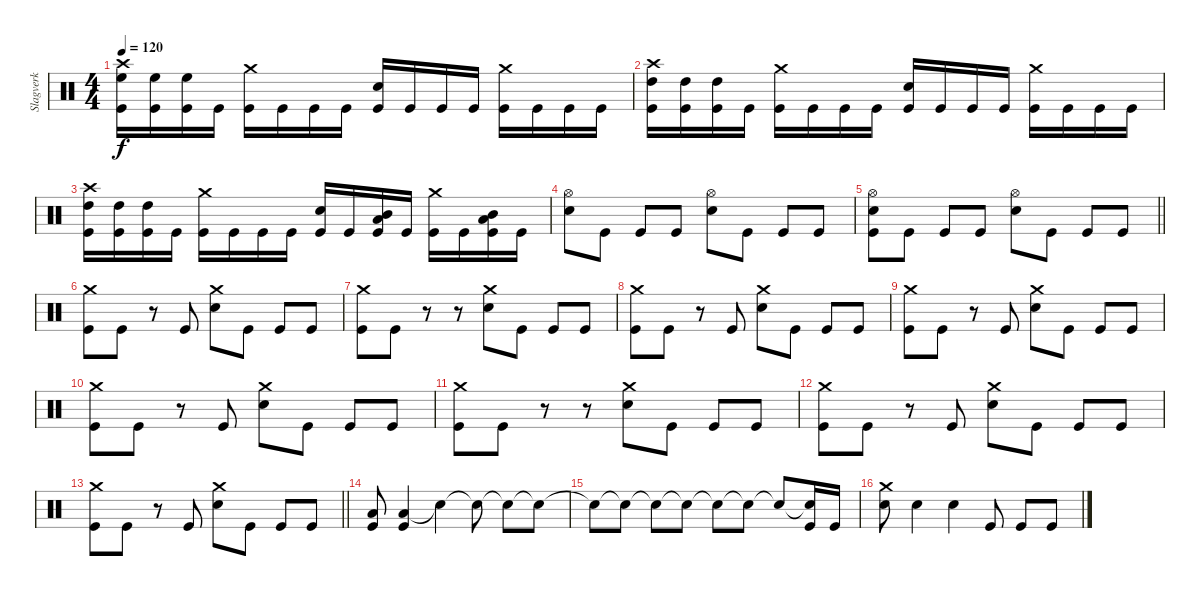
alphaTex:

\track ("Slagverk" "Slagverk") {instrument percussion}
\staff {score}
\articulation defaults
\ts (4 4)
\tempo 120
\clef neutral
\ks c
("Crash high (hit)" "High Floor Tom (hit)" "Kick (hit)").16{dy f} ("High Floor Tom (hit)" "Kick (hit)").16 ("High Floor Tom (hit)" "Kick (hit)").16 "Kick (hit)".16 ("Crash medium (hit)" "Kick (hit)").16 "Kick (hit)".16 "Kick (hit)".16 "Kick (hit)".16 ("Electric Snare (hit)" "Kick (hit)").16 "Kick (hit)".16 "Kick (hit)".16 "Kick (hit)".16 ("Crash medium (hit)" "Kick (hit)").16 "Kick (hit)".16 "Kick (hit)".16 "Kick (hit)".16 |
("Crash high (hit)" "High Tom (hit)" "Kick (hit)").16 ("High Tom (hit)" "Kick (hit)").16 ("High Tom (hit)" "Kick (hit)").16 "Kick (hit)".16 ("Crash medium (hit)" "Kick (hit)").16 "Kick (hit)".16 "Kick (hit)".16 "Kick (hit)".16 ("Electric Snare (hit)" "Kick (hit)").16 "Kick (hit)".16 "Kick (hit)".16 "Kick (hit)".16 ("Crash medium (hit)" "Kick (hit)").16 "Kick (hit)".16 "Kick (hit)".16 "Kick (hit)".16 |
("Crash high (hit)" "High Tom (hit)" "Kick (hit)").16 ("High Tom (hit)" "Kick (hit)").16 ("High Tom (hit)" "Kick (hit)").16 "Kick (hit)".16 ("Crash medium (hit)" "Kick (hit)").16 "Kick (hit)".16 "Kick (hit)".16 "Kick (hit)".16 ("Electric Snare (hit)" "Kick (hit)").16 "Kick (hit)".16 ("Mid Tom (hit)" "Low Tom (hit)" "Kick (hit)").16 "Kick (hit)".16 ("Crash medium (hit)" "Kick (hit)").16 "Kick (hit)".16 ("Mid Tom (hit)" "Low Tom (hit)" "Kick (hit)").16 "Kick (hit)".16 |
("Hi-Hat (open)" "Electric Snare (hit)").8 "Kick (hit)".8 "Kick (hit)".8 "Kick (hit)".8 ("Hi-Hat (open)" "Electric Snare (hit)").8 "Kick (hit)".8 "Kick (hit)".8 "Kick (hit)".8 |
\barLineRight lightlight
("Hi-Hat (open)" "Electric Snare (hit)" "Kick (hit)").8 "Kick (hit)".8 "Kick (hit)".8 "Kick (hit)".8 ("Hi-Hat (open)" "Electric Snare (hit)").8 "Kick (hit)".8 "Kick (hit)".8 "Kick (hit)".8 |
("Crash medium (hit)" "Kick (hit)").8 "Kick (hit)".8 r.8 "Kick (hit)".8 ("Crash medium (hit)" "Electric Snare (hit)").8 "Kick (hit)".8 "Kick (hit)".8 "Kick (hit)".8 |
("Crash medium (hit)" "Kick (hit)").8 "Kick (hit)".8 r.8 r.8 ("Crash medium (hit)" "Electric Snare (hit)").8 "Kick (hit)".8 "Kick (hit)".8 "Kick (hit)".8 |
("Crash medium (hit)" "Kick (hit)").8 "Kick (hit)".8 r.8 "Kick (hit)".8 ("Crash medium (hit)" "Electric Snare (hit)").8 "Kick (hit)".8 "Kick (hit)".8 "Kick (hit)".8 |
("Crash medium (hit)" "Kick (hit)").8 "Kick (hit)".8 r.8 "Kick (hit)".8 ("Crash medium (hit)" "Electric Snare (hit)").8 "Kick (hit)".8 "Kick (hit)".8 "Kick (hit)".8 |
("Crash medium (hit)" "Kick (hit)").8 "Kick (hit)".8 r.8 "Kick (hit)".8 ("Crash medium (hit)" "Electric Snare (hit)").8 "Kick (hit)".8 "Kick (hit)".8 "Kick (hit)".8 |
("Crash medium (hit)" "Kick (hit)").8 "Kick (hit)".8 r.8 r.8 ("Crash medium (hit)" "Electric Snare (hit)").8 "Kick (hit)".8 "Kick (hit)".8 "Kick (hit)".8 |
("Crash medium (hit)" "Kick (hit)").8 "Kick (hit)".8 r.8 "Kick (hit)".8 ("Crash medium (hit)" "Electric Snare (hit)").8 "Kick (hit)".8 "Kick (hit)".8 "Kick (hit)".8 |
\barLineRight lightlight
("Crash medium (hit)" "Kick (hit)").8 "Kick (hit)".8 r.8 "Kick (hit)".8 ("Crash medium (hit)" "Electric Snare (hit)").8 "Kick (hit)".8 "Kick (hit)".8 "Kick (hit)".8 |
("Low Tom (hit)" "Kick (hit)").8 ("Low Tom (hit)" "Kick (hit)").4 "Snare (hit)"{t}.4 "Snare (hit)"{t}.8 "Snare (hit)"{t}.8 "Snare (hit)"{t}.8 |
"Snare (hit)"{t}.8 "Snare (hit)"{t}.8 "Snare (hit)"{t}.8 "Snare (hit)"{t}.8 "Snare (hit)"{t}.8 "Snare (hit)"{t}.8 "Snare (hit)"{t}.8 ("Snare (hit)"{t} "Kick (hit)").16 "Kick (hit)".16 |
("Crash medium (hit)" "Electric Snare (hit)").8 "Electric Snare (hit)".4 "Electric Snare (hit)".4 "Kick (hit)".8 "Kick (hit)".8 "Kick (hit)".8
